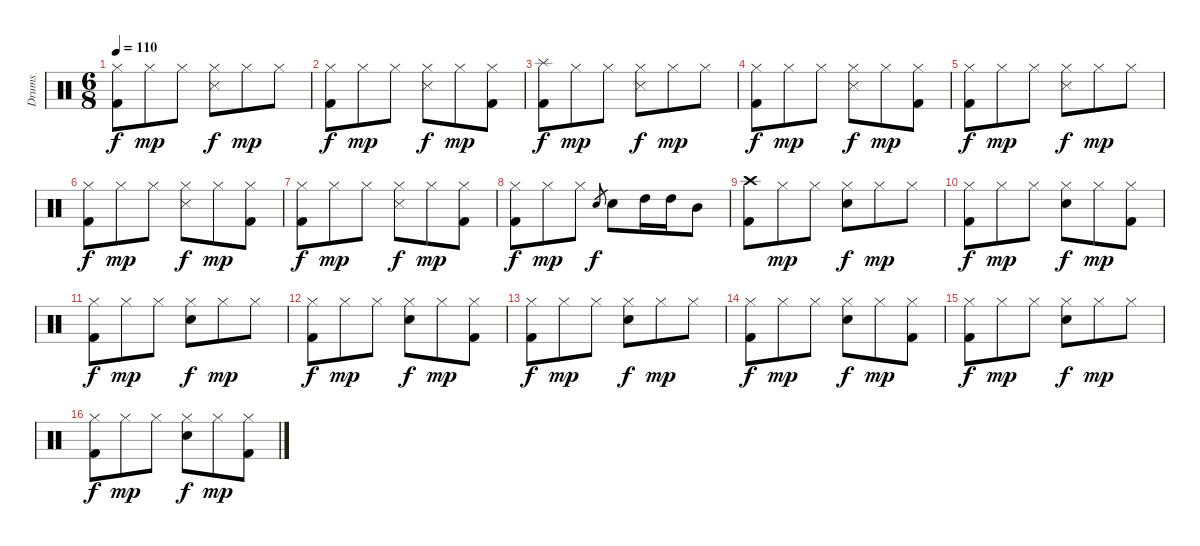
\track ("Drums" "Drums") {instrument percussion}
\staff {score}
\articulation defaults
\ts (6 8)
\tempo 110
\clef neutral
\ks c
("Hi-Hat (closed)" "Kick (hit) 2").8{dy f} "Hi-Hat (closed)".8{dy mp} "Hi-Hat (closed)".8 ("Hi-Hat (closed)" "Snare (side stick) 3").8{dy f} "Hi-Hat (closed)".8{dy mp} "Hi-Hat (closed)".8 |
("Hi-Hat (closed)" "Kick (hit) 2").8{dy f} "Hi-Hat (closed)".8{dy mp} "Hi-Hat (closed)".8 ("Hi-Hat (closed)" "Snare (side stick) 3").8{dy f} "Hi-Hat (closed)".8{dy mp} ("Hi-Hat (closed)" "Kick (hit) 2").8 |
("Splash (hit)" "Kick (hit) 2").8{dy f} "Hi-Hat (closed)".8{dy mp} "Hi-Hat (closed)".8 ("Hi-Hat (closed)" "Snare (side stick) 3").8{dy f} "Hi-Hat (closed)".8{dy mp} "Hi-Hat (closed)".8 |
("Hi-Hat (closed)" "Kick (hit) 2").8{dy f} "Hi-Hat (closed)".8{dy mp} "Hi-Hat (closed)".8 ("Hi-Hat (closed)" "Snare (side stick) 3").8{dy f} "Hi-Hat (closed)".8{dy mp} ("Hi-Hat (closed)" "Kick (hit) 2").8 |
("Hi-Hat (closed)" "Kick (hit) 2").8{dy f} "Hi-Hat (closed)".8{dy mp} "Hi-Hat (closed)".8 ("Hi-Hat (closed)" "Snare (side stick) 3").8{dy f} "Hi-Hat (closed)".8{dy mp} "Hi-Hat (closed)".8 |
("Hi-Hat (closed)" "Kick (hit) 2").8{dy f} "Hi-Hat (closed)".8{dy mp} "Hi-Hat (closed)".8 ("Hi-Hat (closed)" "Snare (side stick) 3").8{dy f} "Hi-Hat (closed)".8{dy mp} ("Hi-Hat (closed)" "Kick (hit) 2").8 |
("Hi-Hat (closed)" "Kick (hit) 2").8{dy f} "Hi-Hat (closed)".8{dy mp} "Hi-Hat (closed)".8 ("Hi-Hat (closed)" "Snare (side stick) 3").8{dy f} "Hi-Hat (closed)".8{dy mp} ("Hi-Hat (closed)" "Kick (hit) 2").8 |
("Hi-Hat (closed)" "Kick (hit) 2").8{dy f} "Hi-Hat (closed)".8{dy mp} "Hi-Hat (closed)".8 "Electric Snare (hit)".8{gr dy f} "Electric Snare (hit)".8 "High Tom (hit)".16 "High Tom (hit)".16 "Mid Tom (hit)".8 |
("Crash high (hit)" "Kick (hit) 2").8 "Hi-Hat (closed)".8{dy mp} "Hi-Hat (closed)".8 ("Hi-Hat (closed)" "Electric Snare (hit)").8{dy f} "Hi-Hat (closed)".8{dy mp} "Hi-Hat (closed)".8 |
("Hi-Hat (closed)" "Kick (hit) 2").8{dy f} "Hi-Hat (closed)".8{dy mp} "Hi-Hat (closed)".8 ("Hi-Hat (closed)" "Electric Snare (hit)").8{dy f} "Hi-Hat (closed)".8{dy mp} ("Hi-Hat (closed)" "Kick (hit) 2").8 |
("Hi-Hat (closed)" "Kick (hit) 2").8{dy f} "Hi-Hat (closed)".8{dy mp} "Hi-Hat (closed)".8 ("Hi-Hat (closed)" "Electric Snare (hit)").8{dy f} "Hi-Hat (closed)".8{dy mp} "Hi-Hat (closed)".8 |
("Hi-Hat (closed)" "Kick (hit) 2").8{dy f} "Hi-Hat (closed)".8{dy mp} "Hi-Hat (closed)".8 ("Hi-Hat (closed)" "Electric Snare (hit)").8{dy f} "Hi-Hat (closed)".8{dy mp} ("Hi-Hat (closed)" "Kick (hit) 2").8 |
("Hi-Hat (closed)" "Kick (hit) 2").8{dy f} "Hi-Hat (closed)".8{dy mp} "Hi-Hat (closed)".8 ("Hi-Hat (closed)" "Electric Snare (hit)").8{dy f} "Hi-Hat (closed)".8{dy mp} "Hi-Hat (closed)".8 |
("Hi-Hat (closed)" "Kick (hit) 2").8{dy f} "Hi-Hat (closed)".8{dy mp} "Hi-Hat (closed)".8 ("Hi-Hat (closed)" "Electric Snare (hit)").8{dy f} "Hi-Hat (closed)".8{dy mp} ("Hi-Hat (closed)" "Kick (hit) 2").8 |
("Hi-Hat (closed)" "Kick (hit) 2").8{dy f} "Hi-Hat (closed)".8{dy mp} "Hi-Hat (closed)".8 ("Hi-Hat (closed)" "Electric Snare (hit)").8{dy f} "Hi-Hat (closed)".8{dy mp} "Hi-Hat (closed)".8 |
("Hi-Hat (closed)" "Kick (hit) 2").8{dy f} "Hi-Hat (closed)".8{dy mp} "Hi-Hat (closed)".8 ("Hi-Hat (closed)" "Electric Snare (hit)").8{dy f} "Hi-Hat (closed)".8{dy mp} ("Hi-Hat (closed)" "Kick (hit) 2").8
